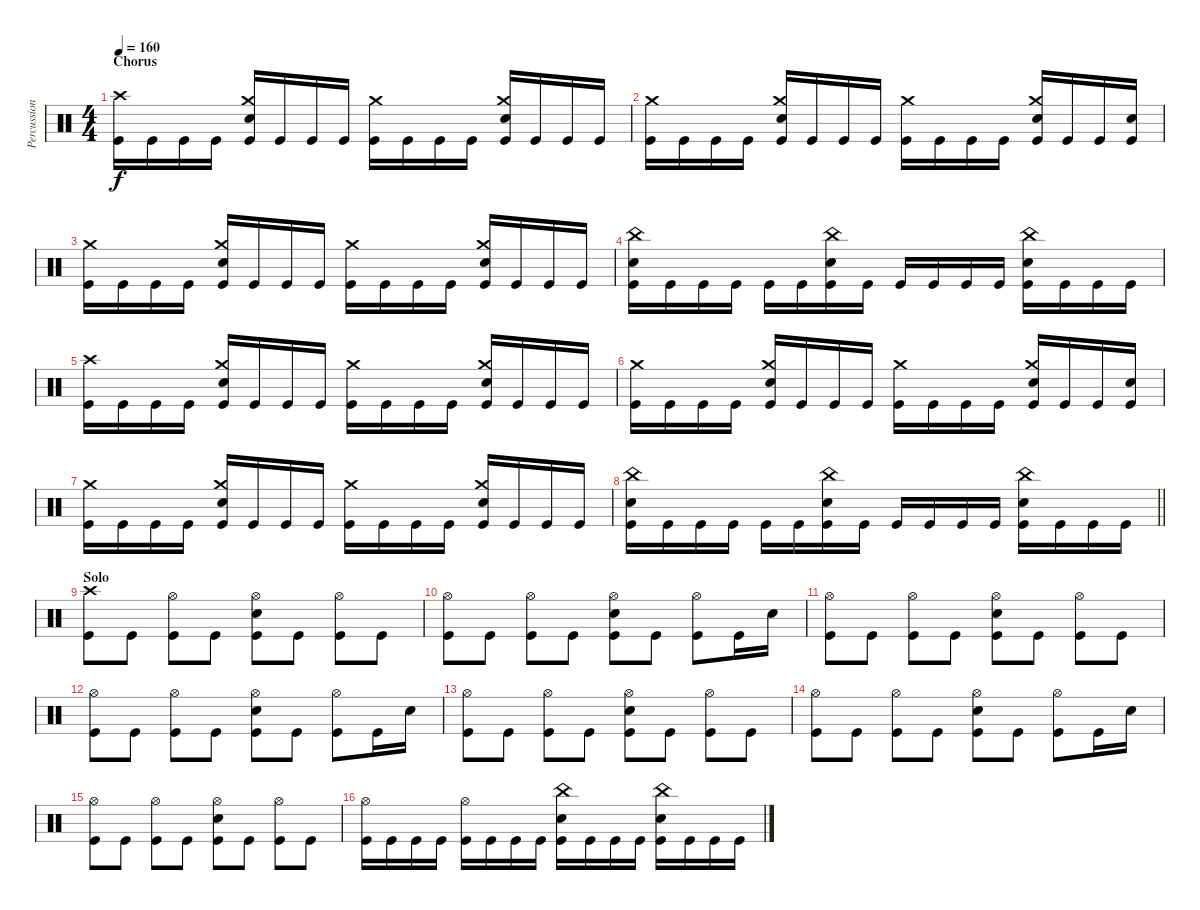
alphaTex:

\track ("Percussion" "Percussion") {instrument percussion}
\staff {score}
\articulation defaults
\ts (4 4)
\section ("" "Chorus")
\tempo 160
\clef neutral
\ks c
("Crash high (hit)" "Kick (hit)").16{dy f} "Kick (hit)".16 "Kick (hit)".16 "Kick (hit)".16 ("Crash medium (hit)" "Electric Snare (hit)" "Kick (hit)").16 "Kick (hit)".16 "Kick (hit)".16 "Kick (hit)".16 ("Crash medium (hit)" "Kick (hit)").16 "Kick (hit)".16 "Kick (hit)".16 "Kick (hit)".16 ("Crash medium (hit)" "Electric Snare (hit)" "Kick (hit)").16 "Kick (hit)".16 "Kick (hit)".16 "Kick (hit)".16 |
("Crash medium (hit)" "Kick (hit)").16 "Kick (hit)".16 "Kick (hit)".16 "Kick (hit)".16 ("Crash medium (hit)" "Electric Snare (hit)" "Kick (hit)").16 "Kick (hit)".16 "Kick (hit)".16 "Kick (hit)".16 ("Crash medium (hit)" "Kick (hit)").16 "Kick (hit)".16 "Kick (hit)".16 "Kick (hit)".16 ("Crash medium (hit)" "Electric Snare (hit)" "Kick (hit)").16 "Kick (hit)".16 "Kick (hit)".16 ("Electric Snare (hit)" "Kick (hit)").16 |
("Crash medium (hit)" "Kick (hit)").16 "Kick (hit)".16 "Kick (hit)".16 "Kick (hit)".16 ("Crash medium (hit)" "Electric Snare (hit)" "Kick (hit)").16 "Kick (hit)".16 "Kick (hit)".16 "Kick (hit)".16 ("Crash medium (hit)" "Kick (hit)").16 "Kick (hit)".16 "Kick (hit)".16 "Kick (hit)".16 ("Crash medium (hit)" "Electric Snare (hit)" "Kick (hit)").16 "Kick (hit)".16 "Kick (hit)".16 "Kick (hit)".16 |
("China (hit)" "Electric Snare (hit)" "Kick (hit)").16 "Kick (hit)".16 "Kick (hit)".16 "Kick (hit)".16 "Kick (hit)".16 "Kick (hit)".16 ("China (hit)" "Electric Snare (hit)" "Kick (hit)").16 "Kick (hit)".16 "Kick (hit)".16 "Kick (hit)".16 "Kick (hit)".16 "Kick (hit)".16 ("China (hit)" "Electric Snare (hit)" "Kick (hit)").16 "Kick (hit)".16 "Kick (hit)".16 "Kick (hit)".16 |
("Crash high (hit)" "Kick (hit)").16 "Kick (hit)".16 "Kick (hit)".16 "Kick (hit)".16 ("Crash medium (hit)" "Electric Snare (hit)" "Kick (hit)").16 "Kick (hit)".16 "Kick (hit)".16 "Kick (hit)".16 ("Crash medium (hit)" "Kick (hit)").16 "Kick (hit)".16 "Kick (hit)".16 "Kick (hit)".16 ("Crash medium (hit)" "Electric Snare (hit)" "Kick (hit)").16 "Kick (hit)".16 "Kick (hit)".16 "Kick (hit)".16 |
("Crash medium (hit)" "Kick (hit)").16 "Kick (hit)".16 "Kick (hit)".16 "Kick (hit)".16 ("Crash medium (hit)" "Electric Snare (hit)" "Kick (hit)").16 "Kick (hit)".16 "Kick (hit)".16 "Kick (hit)".16 ("Crash medium (hit)" "Kick (hit)").16 "Kick (hit)".16 "Kick (hit)".16 "Kick (hit)".16 ("Crash medium (hit)" "Electric Snare (hit)" "Kick (hit)").16 "Kick (hit)".16 "Kick (hit)".16 ("Electric Snare (hit)" "Kick (hit)").16 |
("Crash medium (hit)" "Kick (hit)").16 "Kick (hit)".16 "Kick (hit)".16 "Kick (hit)".16 ("Crash medium (hit)" "Electric Snare (hit)" "Kick (hit)").16 "Kick (hit)".16 "Kick (hit)".16 "Kick (hit)".16 ("Crash medium (hit)" "Kick (hit)").16 "Kick (hit)".16 "Kick (hit)".16 "Kick (hit)".16 ("Crash medium (hit)" "Electric Snare (hit)" "Kick (hit)").16 "Kick (hit)".16 "Kick (hit)".16 "Kick (hit)".16 |
\barLineRight lightlight
("China (hit)" "Electric Snare (hit)" "Kick (hit)").16 "Kick (hit)".16 "Kick (hit)".16 "Kick (hit)".16 "Kick (hit)".16 "Kick (hit)".16 ("China (hit)" "Electric Snare (hit)" "Kick (hit)").16 "Kick (hit)".16 "Kick (hit)".16 "Kick (hit)".16 "Kick (hit)".16 "Kick (hit)".16 ("China (hit)" "Electric Snare (hit)" "Kick (hit)").16 "Kick (hit)".16 "Kick (hit)".16 "Kick (hit)".16 |
\section ("" "Solo")
("Crash high (hit)" "Kick (hit)").8 "Kick (hit)".8 ("Hi-Hat (open)" "Kick (hit)").8 "Kick (hit)".8 ("Hi-Hat (open)" "Electric Snare (hit)" "Kick (hit)").8 "Kick (hit)".8 ("Hi-Hat (open)" "Kick (hit)").8 "Kick (hit)".8 |
("Hi-Hat (open)" "Kick (hit)").8 "Kick (hit)".8 ("Hi-Hat (open)" "Kick (hit)").8 "Kick (hit)".8 ("Hi-Hat (open)" "Electric Snare (hit)" "Kick (hit)").8 "Kick (hit)".8 ("Hi-Hat (open)" "Kick (hit)").8 "Kick (hit)".16 "Electric Snare (hit)".16 |
("Hi-Hat (open)" "Kick (hit)").8 "Kick (hit)".8 ("Hi-Hat (open)" "Kick (hit)").8 "Kick (hit)".8 ("Hi-Hat (open)" "Electric Snare (hit)" "Kick (hit)").8 "Kick (hit)".8 ("Hi-Hat (open)" "Kick (hit)").8 "Kick (hit)".8 |
("Hi-Hat (open)" "Kick (hit)").8 "Kick (hit)".8 ("Hi-Hat (open)" "Kick (hit)").8 "Kick (hit)".8 ("Hi-Hat (open)" "Electric Snare (hit)" "Kick (hit)").8 "Kick (hit)".8 ("Hi-Hat (open)" "Kick (hit)").8 "Kick (hit)".16 "Electric Snare (hit)".16 |
("Hi-Hat (open)" "Kick (hit)").8 "Kick (hit)".8 ("Hi-Hat (open)" "Kick (hit)").8 "Kick (hit)".8 ("Hi-Hat (open)" "Electric Snare (hit)" "Kick (hit)").8 "Kick (hit)".8 ("Hi-Hat (open)" "Kick (hit)").8 "Kick (hit)".8 |
("Hi-Hat (open)" "Kick (hit)").8 "Kick (hit)".8 ("Hi-Hat (open)" "Kick (hit)").8 "Kick (hit)".8 ("Hi-Hat (open)" "Electric Snare (hit)" "Kick (hit)").8 "Kick (hit)".8 ("Hi-Hat (open)" "Kick (hit)").8 "Kick (hit)".16 "Electric Snare (hit)".16 |
("Hi-Hat (open)" "Kick (hit)").8 "Kick (hit)".8 ("Hi-Hat (open)" "Kick (hit)").8 "Kick (hit)".8 ("Hi-Hat (open)" "Electric Snare (hit)" "Kick (hit)").8 "Kick (hit)".8 ("Hi-Hat (open)" "Kick (hit)").8 "Kick (hit)".8 |
("Hi-Hat (open)" "Kick (hit)").16 "Kick (hit)".16 "Kick (hit)".16 "Kick (hit)".16 ("Hi-Hat (open)" "Kick (hit)").16 "Kick (hit)".16 "Kick (hit)".16 "Kick (hit)".16 ("China (hit)" "Electric Snare (hit)" "Kick (hit)").16 "Kick (hit)".16 "Kick (hit)".16 "Kick (hit)".16 ("China (hit)" "Electric Snare (hit)" "Kick (hit)").16 "Kick (hit)".16 "Kick (hit)".16 "Kick (hit)".16
